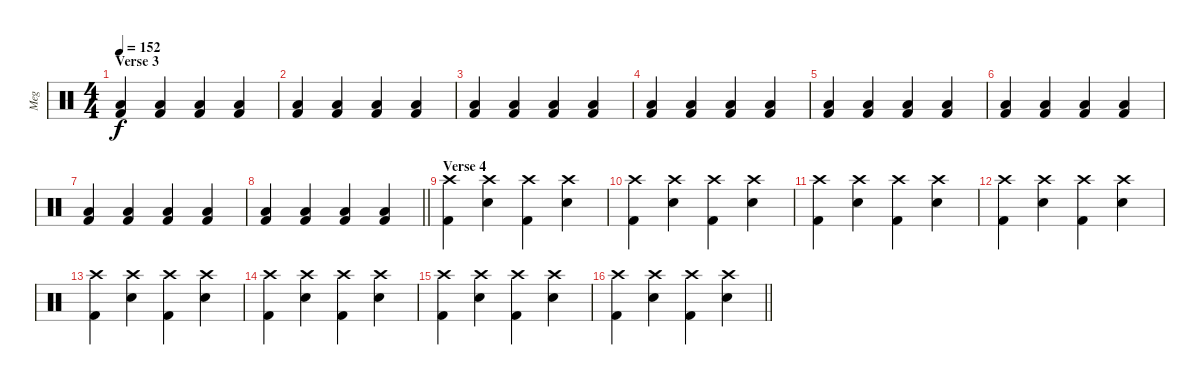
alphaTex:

\track ("Meg" "Meg") {instrument percussion}
\staff {score}
\articulation defaults
\ts (4 4)
\section ("" "Verse 3")
\tempo 152
\clef neutral
\ks c
("Low Floor Tom (hit)" "Kick (hit) 2").4{dy f} ("Low Floor Tom (hit)" "Kick (hit) 2").4 ("Low Floor Tom (hit)" "Kick (hit) 2").4 ("Low Floor Tom (hit)" "Kick (hit) 2").4 |
("Low Floor Tom (hit)" "Kick (hit) 2").4 ("Low Floor Tom (hit)" "Kick (hit) 2").4 ("Low Floor Tom (hit)" "Kick (hit) 2").4 ("Low Floor Tom (hit)" "Kick (hit) 2").4 |
("Low Floor Tom (hit)" "Kick (hit) 2").4 ("Low Floor Tom (hit)" "Kick (hit) 2").4 ("Low Floor Tom (hit)" "Kick (hit) 2").4 ("Low Floor Tom (hit)" "Kick (hit) 2").4 |
("Low Floor Tom (hit)" "Kick (hit) 2").4 ("Low Floor Tom (hit)" "Kick (hit) 2").4 ("Low Floor Tom (hit)" "Kick (hit) 2").4 ("Low Floor Tom (hit)" "Kick (hit) 2").4 |
("Low Floor Tom (hit)" "Kick (hit) 2").4 ("Low Floor Tom (hit)" "Kick (hit) 2").4 ("Low Floor Tom (hit)" "Kick (hit) 2").4 ("Low Floor Tom (hit)" "Kick (hit) 2").4 |
("Low Floor Tom (hit)" "Kick (hit) 2").4 ("Low Floor Tom (hit)" "Kick (hit) 2").4 ("Low Floor Tom (hit)" "Kick (hit) 2").4 ("Low Floor Tom (hit)" "Kick (hit) 2").4 |
("Low Floor Tom (hit)" "Kick (hit) 2").4 ("Low Floor Tom (hit)" "Kick (hit) 2").4 ("Low Floor Tom (hit)" "Kick (hit) 2").4 ("Low Floor Tom (hit)" "Kick (hit) 2").4 |
\barLineRight lightlight
("Low Floor Tom (hit)" "Kick (hit) 2").4 ("Low Floor Tom (hit)" "Kick (hit) 2").4 ("Low Floor Tom (hit)" "Kick (hit) 2").4 ("Low Floor Tom (hit)" "Kick (hit) 2").4 |
\section ("" "Verse 4")
("Crash high (hit)" "Kick (hit) 2").4 ("Crash high (hit)" "Electric Snare (hit)").4 ("Crash high (hit)" "Kick (hit) 2").4 ("Crash high (hit)" "Electric Snare (hit)").4 |
("Crash high (hit)" "Kick (hit) 2").4 ("Crash high (hit)" "Electric Snare (hit)").4 ("Crash high (hit)" "Kick (hit) 2").4 ("Crash high (hit)" "Electric Snare (hit)").4 |
("Crash high (hit)" "Kick (hit) 2").4 ("Crash high (hit)" "Electric Snare (hit)").4 ("Crash high (hit)" "Kick (hit) 2").4 ("Crash high (hit)" "Electric Snare (hit)").4 |
("Crash high (hit)" "Kick (hit) 2").4 ("Crash high (hit)" "Electric Snare (hit)").4 ("Crash high (hit)" "Kick (hit) 2").4 ("Crash high (hit)" "Electric Snare (hit)").4 |
("Crash high (hit)" "Kick (hit) 2").4 ("Crash high (hit)" "Electric Snare (hit)").4 ("Crash high (hit)" "Kick (hit) 2").4 ("Crash high (hit)" "Electric Snare (hit)").4 |
("Crash high (hit)" "Kick (hit) 2").4 ("Crash high (hit)" "Electric Snare (hit)").4 ("Crash high (hit)" "Kick (hit) 2").4 ("Crash high (hit)" "Electric Snare (hit)").4 |
("Crash high (hit)" "Kick (hit) 2").4 ("Crash high (hit)" "Electric Snare (hit)").4 ("Crash high (hit)" "Kick (hit) 2").4 ("Crash high (hit)" "Electric Snare (hit)").4 |
\barLineRight lightlight
("Crash high (hit)" "Kick (hit) 2").4 ("Crash high (hit)" "Electric Snare (hit)").4 ("Crash high (hit)" "Kick (hit) 2").4 ("Crash high (hit)" "Electric Snare (hit)").4
